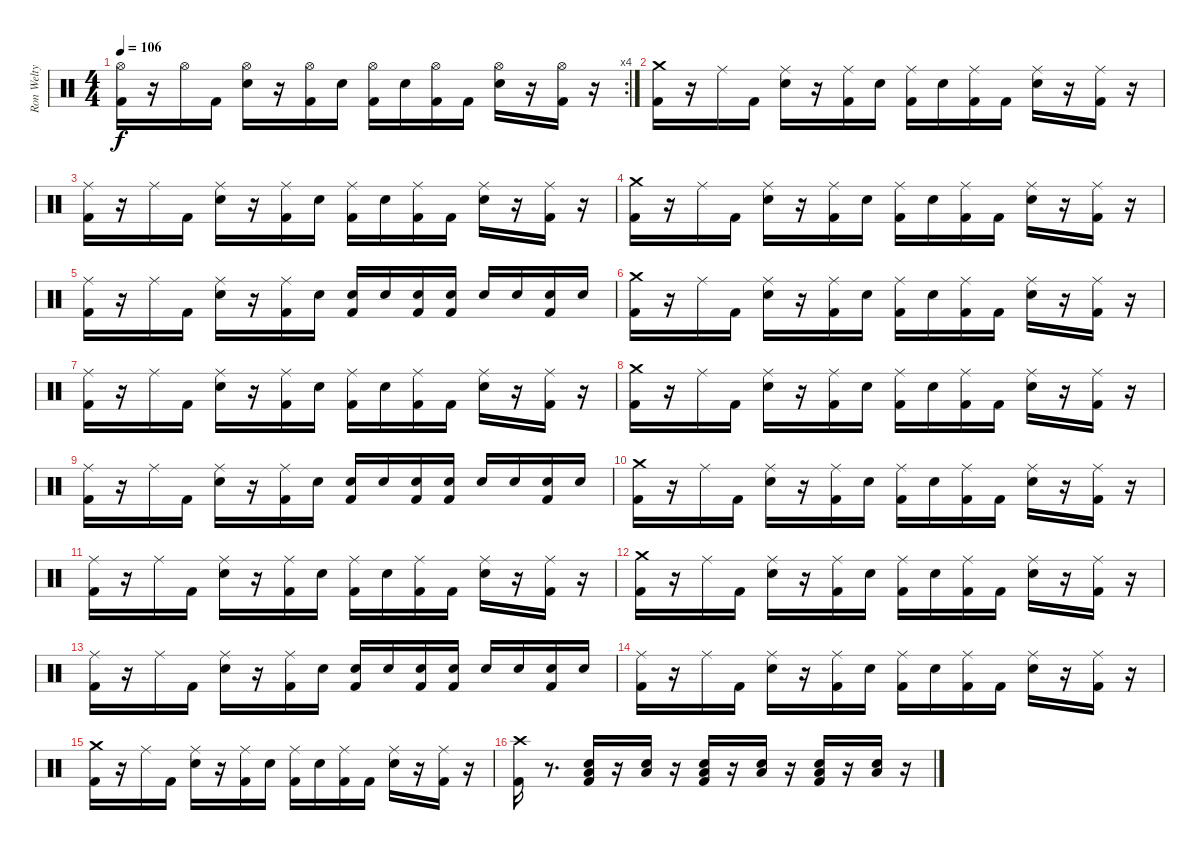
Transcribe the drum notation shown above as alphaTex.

\track ("Ron Welty - Drummer" "Ron Welty ") {instrument percussion}
\staff {score}
\articulation defaults
\rc 4
\ts (4 4)
\tempo 106
\clef neutral
\ks c
("Kick (hit) 2" "Hi-Hat (open)").16{dy f} r.16 "Hi-Hat (open)".16 "Kick (hit) 2".16 ("Hi-Hat (open)" "Electric Snare (hit)").16 r.16 ("Hi-Hat (open)" "Kick (hit) 2").16 "Electric Snare (hit)".16 ("Hi-Hat (open)" "Kick (hit) 2").16 "Electric Snare (hit)".16 ("Hi-Hat (open)" "Kick (hit) 2").16 "Kick (hit) 2".16 ("Hi-Hat (open)" "Electric Snare (hit)").16 r.16 ("Hi-Hat (open)" "Kick (hit) 2").16 r.16 |
("Kick (hit) 2" "Crash medium (hit)").16 r.16 "Ride (middle)".16 "Kick (hit) 2".16 ("Electric Snare (hit)" "Ride (middle)").16 r.16 ("Kick (hit) 2" "Ride (middle)").16 "Electric Snare (hit)".16 ("Kick (hit) 2" "Ride (middle)").16 "Electric Snare (hit)".16 ("Kick (hit) 2" "Ride (middle)").16 "Kick (hit) 2".16 ("Electric Snare (hit)" "Ride (middle)").16 r.16 ("Kick (hit) 2" "Ride (middle)").16 r.16 |
("Kick (hit) 2" "Ride (middle)").16 r.16 "Ride (middle)".16 "Kick (hit) 2".16 ("Electric Snare (hit)" "Ride (middle)").16 r.16 ("Kick (hit) 2" "Ride (middle)").16 "Electric Snare (hit)".16 ("Kick (hit) 2" "Ride (middle)").16 "Electric Snare (hit)".16 ("Kick (hit) 2" "Ride (middle)").16 "Kick (hit) 2".16 ("Electric Snare (hit)" "Ride (middle)").16 r.16 ("Kick (hit) 2" "Ride (middle)").16 r.16 |
("Kick (hit) 2" "Crash medium (hit)").16 r.16 "Ride (middle)".16 "Kick (hit) 2".16 ("Electric Snare (hit)" "Ride (middle)").16 r.16 ("Kick (hit) 2" "Ride (middle)").16 "Electric Snare (hit)".16 ("Kick (hit) 2" "Ride (middle)").16 "Electric Snare (hit)".16 ("Kick (hit) 2" "Ride (middle)").16 "Kick (hit) 2".16 ("Electric Snare (hit)" "Ride (middle)").16 r.16 ("Kick (hit) 2" "Ride (middle)").16 r.16 |
("Kick (hit) 2" "Ride (middle)").16 r.16 "Ride (middle)".16 "Kick (hit) 2".16 ("Electric Snare (hit)" "Ride (middle)").16 r.16 ("Kick (hit) 2" "Ride (middle)").16 "Electric Snare (hit)".16 ("Kick (hit) 2" "Electric Snare (hit)").16 "Electric Snare (hit)".16 ("Kick (hit) 2" "Electric Snare (hit)").16 ("Kick (hit) 2" "Electric Snare (hit)").16 "Electric Snare (hit)".16 "Electric Snare (hit)".16 ("Kick (hit) 2" "Electric Snare (hit)").16 "Electric Snare (hit)".16 |
("Crash medium (hit)" "Kick (hit) 2").16 r.16 "Ride (middle)".16 "Kick (hit) 2".16 ("Electric Snare (hit)" "Ride (middle)").16 r.16 ("Kick (hit) 2" "Ride (middle)").16 "Electric Snare (hit)".16 ("Kick (hit) 2" "Ride (middle)").16 "Electric Snare (hit)".16 ("Kick (hit) 2" "Ride (middle)").16 "Kick (hit) 2".16 ("Electric Snare (hit)" "Ride (middle)").16 r.16 ("Kick (hit) 2" "Ride (middle)").16 r.16 |
("Kick (hit) 2" "Ride (middle)").16 r.16 "Ride (middle)".16 "Kick (hit) 2".16 ("Electric Snare (hit)" "Ride (middle)").16 r.16 ("Kick (hit) 2" "Ride (middle)").16 "Electric Snare (hit)".16 ("Kick (hit) 2" "Ride (middle)").16 "Electric Snare (hit)".16 ("Kick (hit) 2" "Ride (middle)").16 "Kick (hit) 2".16 ("Electric Snare (hit)" "Ride (middle)").16 r.16 ("Kick (hit) 2" "Ride (middle)").16 r.16 |
("Kick (hit) 2" "Crash medium (hit)").16 r.16 "Ride (middle)".16 "Kick (hit) 2".16 ("Electric Snare (hit)" "Ride (middle)").16 r.16 ("Kick (hit) 2" "Ride (middle)").16 "Electric Snare (hit)".16 ("Kick (hit) 2" "Ride (middle)").16 "Electric Snare (hit)".16 ("Kick (hit) 2" "Ride (middle)").16 "Kick (hit) 2".16 ("Electric Snare (hit)" "Ride (middle)").16 r.16 ("Kick (hit) 2" "Ride (middle)").16 r.16 |
("Kick (hit) 2" "Ride (middle)").16 r.16 "Ride (middle)".16 "Kick (hit) 2".16 ("Electric Snare (hit)" "Ride (middle)").16 r.16 ("Kick (hit) 2" "Ride (middle)").16 "Electric Snare (hit)".16 ("Kick (hit) 2" "Electric Snare (hit)").16 "Electric Snare (hit)".16 ("Kick (hit) 2" "Electric Snare (hit)").16 ("Kick (hit) 2" "Electric Snare (hit)").16 "Electric Snare (hit)".16 "Electric Snare (hit)".16 ("Kick (hit) 2" "Electric Snare (hit)").16 "Electric Snare (hit)".16 |
("Crash medium (hit)" "Kick (hit) 2").16 r.16 "Ride (middle)".16 "Kick (hit) 2".16 ("Electric Snare (hit)" "Ride (middle)").16 r.16 ("Kick (hit) 2" "Ride (middle)").16 "Electric Snare (hit)".16 ("Kick (hit) 2" "Ride (middle)").16 "Electric Snare (hit)".16 ("Kick (hit) 2" "Ride (middle)").16 "Kick (hit) 2".16 ("Electric Snare (hit)" "Ride (middle)").16 r.16 ("Kick (hit) 2" "Ride (middle)").16 r.16 |
("Kick (hit) 2" "Ride (middle)").16 r.16 "Ride (middle)".16 "Kick (hit) 2".16 ("Electric Snare (hit)" "Ride (middle)").16 r.16 ("Kick (hit) 2" "Ride (middle)").16 "Electric Snare (hit)".16 ("Kick (hit) 2" "Ride (middle)").16 "Electric Snare (hit)".16 ("Kick (hit) 2" "Ride (middle)").16 "Kick (hit) 2".16 ("Electric Snare (hit)" "Ride (middle)").16 r.16 ("Kick (hit) 2" "Ride (middle)").16 r.16 |
("Kick (hit) 2" "Crash medium (hit)").16 r.16 "Ride (middle)".16 "Kick (hit) 2".16 ("Electric Snare (hit)" "Ride (middle)").16 r.16 ("Kick (hit) 2" "Ride (middle)").16 "Electric Snare (hit)".16 ("Kick (hit) 2" "Ride (middle)").16 "Electric Snare (hit)".16 ("Kick (hit) 2" "Ride (middle)").16 "Kick (hit) 2".16 ("Electric Snare (hit)" "Ride (middle)").16 r.16 ("Kick (hit) 2" "Ride (middle)").16 r.16 |
("Kick (hit) 2" "Ride (middle)").16 r.16 "Ride (middle)".16 "Kick (hit) 2".16 ("Electric Snare (hit)" "Ride (middle)").16 r.16 ("Kick (hit) 2" "Ride (middle)").16 "Electric Snare (hit)".16 ("Kick (hit) 2" "Electric Snare (hit)").16 "Electric Snare (hit)".16 ("Kick (hit) 2" "Electric Snare (hit)").16 ("Kick (hit) 2" "Electric Snare (hit)").16 "Electric Snare (hit)".16 "Electric Snare (hit)".16 ("Kick (hit) 2" "Electric Snare (hit)").16 "Electric Snare (hit)".16 |
("Kick (hit) 2" "Ride (middle)").16 r.16 "Ride (middle)".16 "Kick (hit) 2".16 ("Electric Snare (hit)" "Ride (middle)").16 r.16 ("Kick (hit) 2" "Ride (middle)").16 "Electric Snare (hit)".16 ("Kick (hit) 2" "Ride (middle)").16 "Electric Snare (hit)".16 ("Kick (hit) 2" "Ride (middle)").16 "Kick (hit) 2".16 ("Electric Snare (hit)" "Ride (middle)").16 r.16 ("Kick (hit) 2" "Ride (middle)").16 r.16 |
("Kick (hit) 2" "Crash medium (hit)").16 r.16 "Ride (middle)".16 "Kick (hit) 2".16 ("Electric Snare (hit)" "Ride (middle)").16 r.16 ("Kick (hit) 2" "Ride (middle)").16 "Electric Snare (hit)".16 ("Kick (hit) 2" "Ride (middle)").16 "Electric Snare (hit)".16 ("Kick (hit) 2" "Ride (middle)").16 "Kick (hit) 2".16 ("Electric Snare (hit)" "Ride (middle)").16 r.16 ("Kick (hit) 2" "Ride (middle)").16 r.16 |
("Kick (hit) 2" "Crash high (hit)").16 r.8{d} ("Low Floor Tom (hit)" "Kick (hit) 2" "Electric Snare (hit)").16 r.16 ("Low Floor Tom (hit)" "Electric Snare (hit)").16 r.16 ("Kick (hit) 2" "Low Floor Tom (hit)" "Electric Snare (hit)").16 r.16 ("Low Floor Tom (hit)" "Electric Snare (hit)").16 r.16 ("Kick (hit) 2" "Low Floor Tom (hit)" "Electric Snare (hit)").16 r.16 ("Low Floor Tom (hit)" "Electric Snare (hit)").16 r.16
